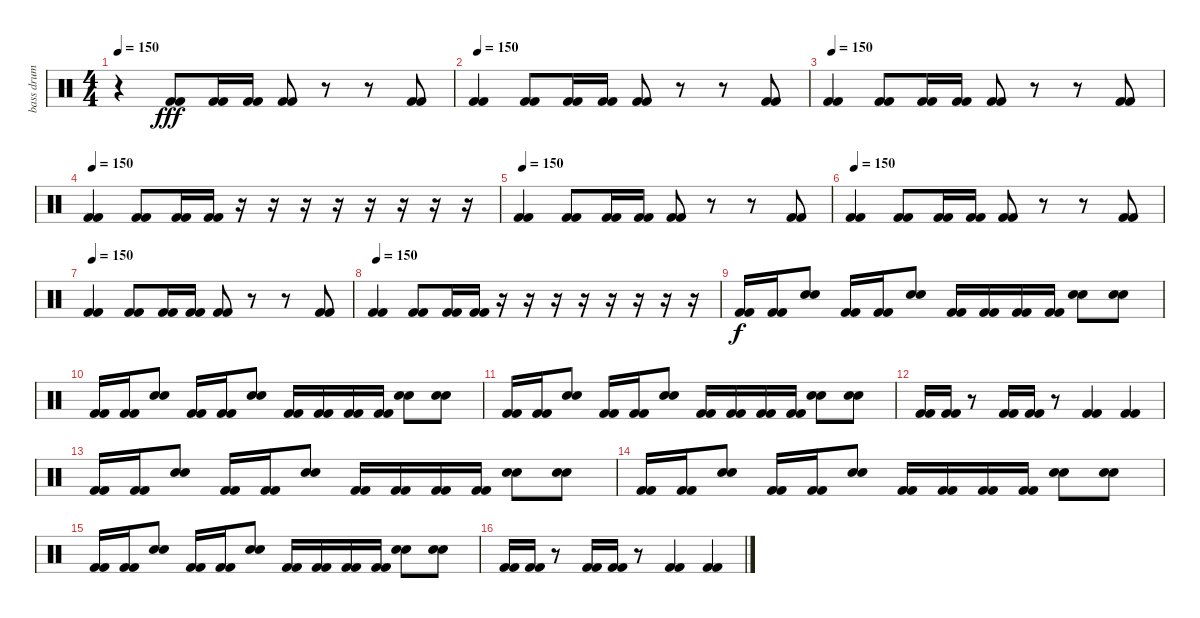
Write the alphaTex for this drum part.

\track ("bass drum" "bass drum") {instrument percussion}
\staff {score}
\articulation defaults
\ts (4 4)
\tempo 150
\clef neutral
\ks c
r.4{dy f volume 16} ("Kick (hit) 2" "Kick (hit) 2").8{dy fff} ("Kick (hit) 2" "Kick (hit) 2").16 ("Kick (hit) 2" "Kick (hit) 2").16 ("Kick (hit) 2" "Kick (hit) 2").8 r.8 r.8 ("Kick (hit) 2" "Kick (hit) 2").8 |
\tempo 150
("Kick (hit) 2" "Kick (hit) 2").4 ("Kick (hit) 2" "Kick (hit) 2").8 ("Kick (hit) 2" "Kick (hit) 2").16 ("Kick (hit) 2" "Kick (hit) 2").16 ("Kick (hit) 2" "Kick (hit) 2").8 r.8 r.8 ("Kick (hit) 2" "Kick (hit) 2").8 |
\tempo 150
("Kick (hit) 2" "Kick (hit) 2").4 ("Kick (hit) 2" "Kick (hit) 2").8 ("Kick (hit) 2" "Kick (hit) 2").16 ("Kick (hit) 2" "Kick (hit) 2").16 ("Kick (hit) 2" "Kick (hit) 2").8 r.8 r.8 ("Kick (hit) 2" "Kick (hit) 2").8 |
\tempo 150
("Kick (hit) 2" "Kick (hit) 2").4 ("Kick (hit) 2" "Kick (hit) 2").8 ("Kick (hit) 2" "Kick (hit) 2").16 ("Kick (hit) 2" "Kick (hit) 2").16 r.16 r.16 r.16 r.16 r.16 r.16 r.16 r.16 |
\tempo 150
("Kick (hit) 2" "Kick (hit) 2").4 ("Kick (hit) 2" "Kick (hit) 2").8 ("Kick (hit) 2" "Kick (hit) 2").16 ("Kick (hit) 2" "Kick (hit) 2").16 ("Kick (hit) 2" "Kick (hit) 2").8 r.8 r.8 ("Kick (hit) 2" "Kick (hit) 2").8 |
\tempo 150
("Kick (hit) 2" "Kick (hit) 2").4 ("Kick (hit) 2" "Kick (hit) 2").8 ("Kick (hit) 2" "Kick (hit) 2").16 ("Kick (hit) 2" "Kick (hit) 2").16 ("Kick (hit) 2" "Kick (hit) 2").8 r.8 r.8 ("Kick (hit) 2" "Kick (hit) 2").8 |
\tempo 150
("Kick (hit) 2" "Kick (hit) 2").4 ("Kick (hit) 2" "Kick (hit) 2").8 ("Kick (hit) 2" "Kick (hit) 2").16 ("Kick (hit) 2" "Kick (hit) 2").16 ("Kick (hit) 2" "Kick (hit) 2").8 r.8 r.8 ("Kick (hit) 2" "Kick (hit) 2").8 |
\tempo 150
("Kick (hit) 2" "Kick (hit) 2").4 ("Kick (hit) 2" "Kick (hit) 2").8 ("Kick (hit) 2" "Kick (hit) 2").16 ("Kick (hit) 2" "Kick (hit) 2").16 r.16 r.16 r.16 r.16 r.16 r.16 r.16 r.16 |
("Kick (hit) 2" "Kick (hit) 2").16{dy f} ("Kick (hit) 2" "Kick (hit) 2").16 ("Snare (hit) 2" "Snare (hit) 2").8 ("Kick (hit) 2" "Kick (hit) 2").16 ("Kick (hit) 2" "Kick (hit) 2").16 ("Snare (hit) 2" "Snare (hit) 2").8 ("Kick (hit) 2" "Kick (hit) 2").16 ("Kick (hit) 2" "Kick (hit) 2").16 ("Kick (hit) 2" "Kick (hit) 2").16 ("Kick (hit) 2" "Kick (hit) 2").16 ("Snare (hit) 2" "Snare (hit) 2").8 ("Snare (hit) 2" "Snare (hit) 2").8 |
("Kick (hit) 2" "Kick (hit) 2").16 ("Kick (hit) 2" "Kick (hit) 2").16 ("Snare (hit) 2" "Snare (hit) 2").8 ("Kick (hit) 2" "Kick (hit) 2").16 ("Kick (hit) 2" "Kick (hit) 2").16 ("Snare (hit) 2" "Snare (hit) 2").8 ("Kick (hit) 2" "Kick (hit) 2").16 ("Kick (hit) 2" "Kick (hit) 2").16 ("Kick (hit) 2" "Kick (hit) 2").16 ("Kick (hit) 2" "Kick (hit) 2").16 ("Snare (hit) 2" "Snare (hit) 2").8 ("Snare (hit) 2" "Snare (hit) 2").8 |
("Kick (hit) 2" "Kick (hit) 2").16 ("Kick (hit) 2" "Kick (hit) 2").16 ("Snare (hit) 2" "Snare (hit) 2").8 ("Kick (hit) 2" "Kick (hit) 2").16 ("Kick (hit) 2" "Kick (hit) 2").16 ("Snare (hit) 2" "Snare (hit) 2").8 ("Kick (hit) 2" "Kick (hit) 2").16 ("Kick (hit) 2" "Kick (hit) 2").16 ("Kick (hit) 2" "Kick (hit) 2").16 ("Kick (hit) 2" "Kick (hit) 2").16 ("Snare (hit) 2" "Snare (hit) 2").8 ("Snare (hit) 2" "Snare (hit) 2").8 |
("Kick (hit) 2" "Kick (hit) 2").16 ("Kick (hit) 2" "Kick (hit) 2").16 r.8 ("Kick (hit) 2" "Kick (hit) 2").16 ("Kick (hit) 2" "Kick (hit) 2").16 r.8 ("Kick (hit) 2" "Kick (hit) 2").4 ("Kick (hit) 2" "Kick (hit) 2").4 |
("Kick (hit) 2" "Kick (hit) 2").16 ("Kick (hit) 2" "Kick (hit) 2").16 ("Snare (hit) 2" "Snare (hit) 2").8 ("Kick (hit) 2" "Kick (hit) 2").16 ("Kick (hit) 2" "Kick (hit) 2").16 ("Snare (hit) 2" "Snare (hit) 2").8 ("Kick (hit) 2" "Kick (hit) 2").16 ("Kick (hit) 2" "Kick (hit) 2").16 ("Kick (hit) 2" "Kick (hit) 2").16 ("Kick (hit) 2" "Kick (hit) 2").16 ("Snare (hit) 2" "Snare (hit) 2").8 ("Snare (hit) 2" "Snare (hit) 2").8 |
("Kick (hit) 2" "Kick (hit) 2").16 ("Kick (hit) 2" "Kick (hit) 2").16 ("Snare (hit) 2" "Snare (hit) 2").8 ("Kick (hit) 2" "Kick (hit) 2").16 ("Kick (hit) 2" "Kick (hit) 2").16 ("Snare (hit) 2" "Snare (hit) 2").8 ("Kick (hit) 2" "Kick (hit) 2").16 ("Kick (hit) 2" "Kick (hit) 2").16 ("Kick (hit) 2" "Kick (hit) 2").16 ("Kick (hit) 2" "Kick (hit) 2").16 ("Snare (hit) 2" "Snare (hit) 2").8 ("Snare (hit) 2" "Snare (hit) 2").8 |
("Kick (hit) 2" "Kick (hit) 2").16 ("Kick (hit) 2" "Kick (hit) 2").16 ("Snare (hit) 2" "Snare (hit) 2").8 ("Kick (hit) 2" "Kick (hit) 2").16 ("Kick (hit) 2" "Kick (hit) 2").16 ("Snare (hit) 2" "Snare (hit) 2").8 ("Kick (hit) 2" "Kick (hit) 2").16 ("Kick (hit) 2" "Kick (hit) 2").16 ("Kick (hit) 2" "Kick (hit) 2").16 ("Kick (hit) 2" "Kick (hit) 2").16 ("Snare (hit) 2" "Snare (hit) 2").8 ("Snare (hit) 2" "Snare (hit) 2").8 |
("Kick (hit) 2" "Kick (hit) 2").16 ("Kick (hit) 2" "Kick (hit) 2").16 r.8 ("Kick (hit) 2" "Kick (hit) 2").16 ("Kick (hit) 2" "Kick (hit) 2").16 r.8 ("Kick (hit) 2" "Kick (hit) 2").4 ("Kick (hit) 2" "Kick (hit) 2").4
